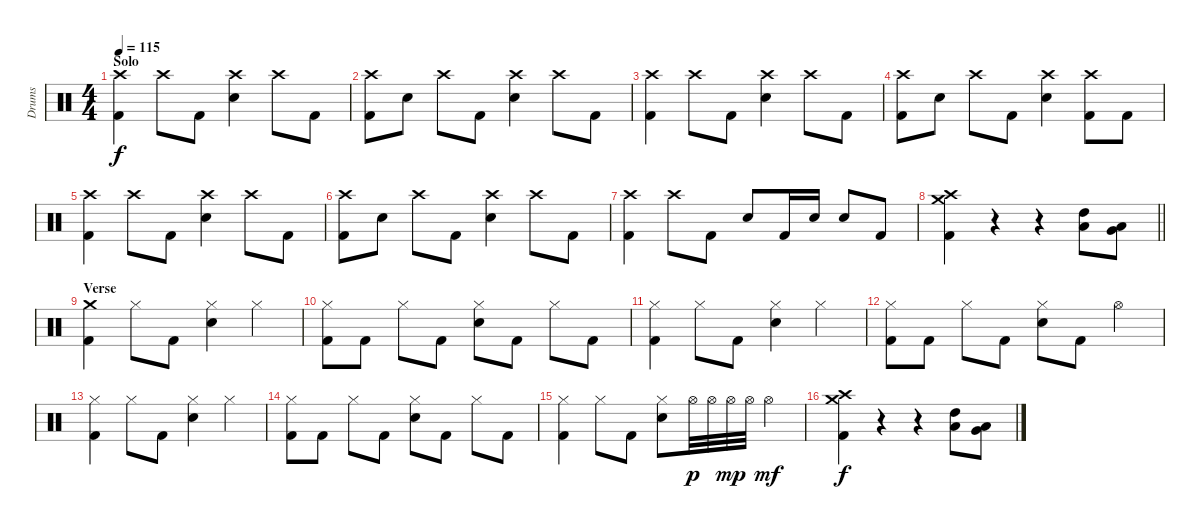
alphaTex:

\track ("Drums" "Drums") {instrument percussion}
\staff {score}
\articulation defaults
\ts (4 4)
\section ("" "Solo")
\tempo 115
\clef neutral
\ks c
("Crash high (hit)" "Kick (hit) 2").4{dy f} "Crash high (hit)".8 "Kick (hit) 2".8 ("Crash high (hit)" "Snare (hit) 2").4 "Crash high (hit)".8 "Kick (hit) 2".8 |
("Crash high (hit)" "Kick (hit) 2").8 "Snare (hit) 2".8 "Crash high (hit)".8 "Kick (hit) 2".8 ("Crash high (hit)" "Snare (hit) 2").4 "Crash high (hit)".8 "Kick (hit) 2".8 |
("Crash high (hit)" "Kick (hit) 2").4 "Crash high (hit)".8 "Kick (hit) 2".8 ("Crash high (hit)" "Snare (hit) 2").4 "Crash high (hit)".8 "Kick (hit) 2".8 |
("Crash high (hit)" "Kick (hit) 2").8 "Snare (hit) 2".8 "Crash high (hit)".8 "Kick (hit) 2".8 ("Crash high (hit)" "Snare (hit) 2").4 ("Crash high (hit)" "Kick (hit) 2").8 "Kick (hit) 2".8 |
("Crash high (hit)" "Kick (hit) 2").4 "Crash high (hit)".8 "Kick (hit) 2".8 ("Crash high (hit)" "Snare (hit) 2").4 "Crash high (hit)".8 "Kick (hit) 2".8 |
("Crash high (hit)" "Kick (hit) 2").8 "Snare (hit) 2".8 "Crash high (hit)".8 "Kick (hit) 2".8 ("Crash high (hit)" "Snare (hit) 2").4 "Crash high (hit)".8 "Kick (hit) 2".8 |
("Crash high (hit)" "Kick (hit) 2").4 "Crash high (hit)".8 "Kick (hit) 2".8 "Snare (hit) 2".8 "Kick (hit) 2".16 "Snare (hit) 2".16 "Snare (hit) 2".8 "Kick (hit) 2".8 |
\barLineRight lightlight
("Crash medium (hit)" "Crash high (hit)" "Kick (hit) 2").4 r.4 r.4 ("Low Tom (hit)" "High Tom (hit)").8 ("Low Tom (hit)" "Very Low Tom (hit)").8 |
\section ("" "Verse")
("Crash medium (hit)" "Kick (hit) 2").4 "Hi-Hat (closed)".8 "Kick (hit) 2".8 ("Hi-Hat (closed)" "Snare (hit) 2").4 "Hi-Hat (closed)".4 |
("Hi-Hat (closed)" "Kick (hit) 2").8 "Kick (hit) 2".8 "Hi-Hat (closed)".8 "Kick (hit) 2".8 ("Hi-Hat (closed)" "Snare (hit) 2").8 "Kick (hit) 2".8 "Hi-Hat (closed)".8 "Kick (hit) 2".8 |
("Hi-Hat (closed)" "Kick (hit) 2").4 "Hi-Hat (closed)".8 "Kick (hit) 2".8 ("Hi-Hat (closed)" "Snare (hit) 2").4 "Hi-Hat (closed)".4 |
("Hi-Hat (closed)" "Kick (hit) 2").8 "Kick (hit) 2".8 "Hi-Hat (closed)".8 "Kick (hit) 2".8 ("Hi-Hat (closed)" "Snare (hit) 2").8 "Kick (hit) 2".8 "Hi-Hat (open)".4 |
("Hi-Hat (closed)" "Kick (hit) 2").4 "Hi-Hat (closed)".8 "Kick (hit) 2".8 ("Hi-Hat (closed)" "Snare (hit) 2").4 "Hi-Hat (closed)".4 |
("Hi-Hat (closed)" "Kick (hit) 2").8 "Kick (hit) 2".8 "Hi-Hat (closed)".8 "Kick (hit) 2".8 ("Hi-Hat (closed)" "Snare (hit) 2").8 "Kick (hit) 2".8 "Hi-Hat (closed)".8 "Kick (hit) 2".8 |
("Hi-Hat (closed)" "Kick (hit) 2").4 "Hi-Hat (closed)".8 "Kick (hit) 2".8 ("Hi-Hat (closed)" "Snare (hit) 2").8 "Hi-Hat (open)".32{dy p} "Hi-Hat (open)".32 "Hi-Hat (open)".32{dy mp} "Hi-Hat (open)".32 "Hi-Hat (open)".4{dy mf} |
("Crash medium (hit)" "Crash high (hit)" "Kick (hit) 2").4{dy f} r.4 r.4 ("Low Tom (hit)" "High Tom (hit)").8 ("Low Tom (hit)" "Very Low Tom (hit)").8
